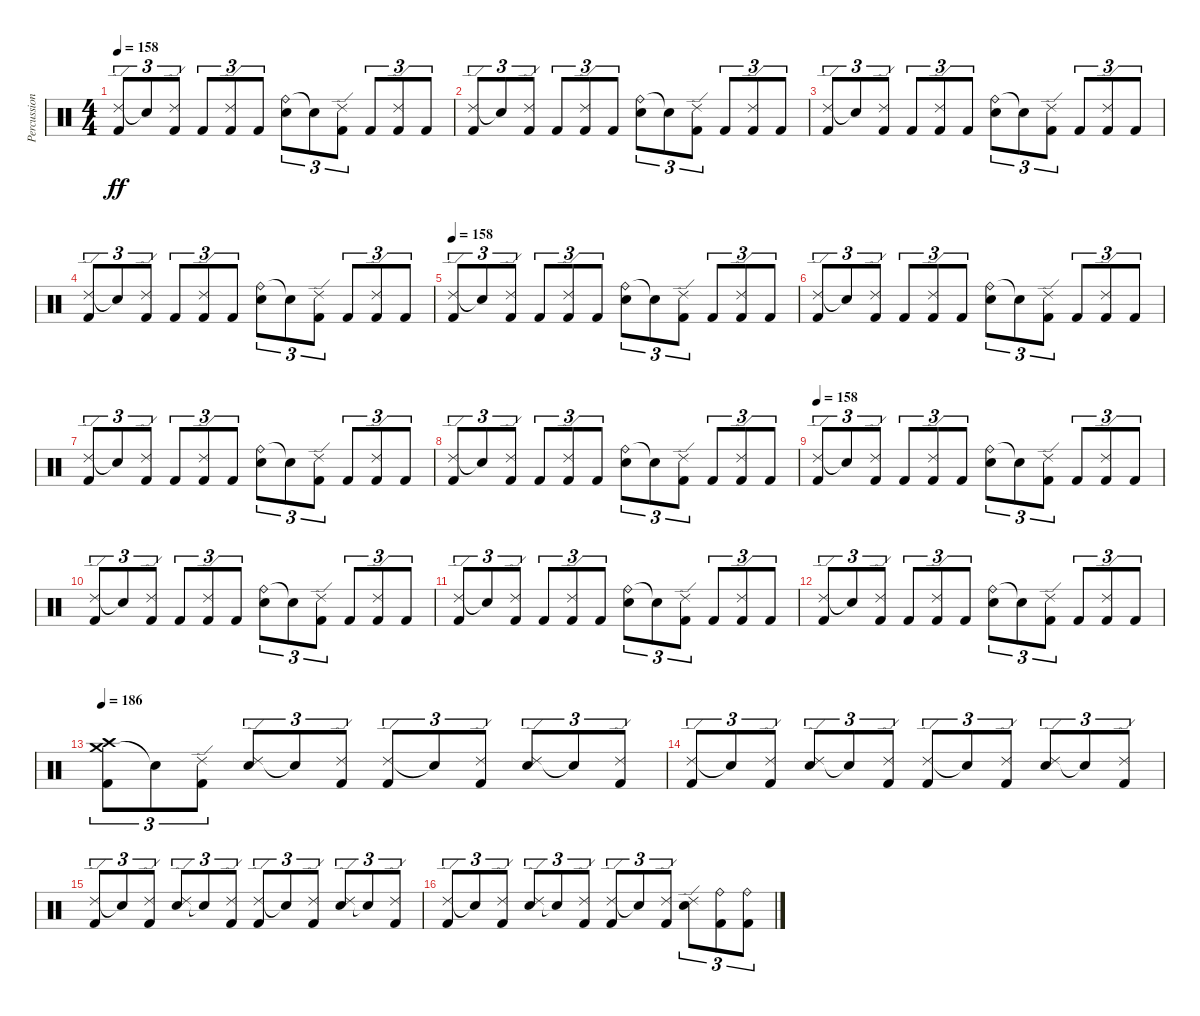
\track ("Percussion" "Percussion") {instrument percussion}
\staff {score}
\articulation defaults
\ts (4 4)
\tempo 158
\clef neutral
\ks c
("Ride (edge) 2" "Kick (hit) 2").8{tu (3 2) dy ff} "Snare (hit)"{t}.8{tu (3 2)} ("Ride (edge) 2" "Kick (hit) 2").8{tu (3 2)} "Kick (hit) 2".8{tu (3 2)} ("Ride (edge) 2" "Kick (hit) 2").8{tu (3 2)} "Kick (hit) 2".8{tu (3 2)} ("Ride (bell)" "Snare (hit) 2").8{tu (3 2)} "Snare (hit)"{t}.8{tu (3 2)} ("Ride (edge) 2" "Kick (hit) 2").8{tu (3 2)} "Kick (hit) 2".8{tu (3 2)} ("Ride (edge) 2" "Kick (hit) 2").8{tu (3 2)} "Kick (hit) 2".8{tu (3 2)} |
("Ride (edge) 2" "Kick (hit) 2").8{tu (3 2)} "Snare (hit)"{t}.8{tu (3 2)} ("Ride (edge) 2" "Kick (hit) 2").8{tu (3 2)} "Kick (hit) 2".8{tu (3 2)} ("Ride (edge) 2" "Kick (hit) 2").8{tu (3 2)} "Kick (hit) 2".8{tu (3 2)} ("Ride (bell)" "Snare (hit) 2").8{tu (3 2)} "Snare (hit)"{t}.8{tu (3 2)} ("Ride (edge) 2" "Kick (hit) 2").8{tu (3 2)} "Kick (hit) 2".8{tu (3 2)} ("Ride (edge) 2" "Kick (hit) 2").8{tu (3 2)} "Kick (hit) 2".8{tu (3 2)} |
("Ride (edge) 2" "Kick (hit) 2").8{tu (3 2)} "Snare (hit)"{t}.8{tu (3 2)} ("Ride (edge) 2" "Kick (hit) 2").8{tu (3 2)} "Kick (hit) 2".8{tu (3 2)} ("Ride (edge) 2" "Kick (hit) 2").8{tu (3 2)} "Kick (hit) 2".8{tu (3 2)} ("Ride (bell)" "Snare (hit) 2").8{tu (3 2)} "Snare (hit)"{t}.8{tu (3 2)} ("Ride (edge) 2" "Kick (hit) 2").8{tu (3 2)} "Kick (hit) 2".8{tu (3 2)} ("Ride (edge) 2" "Kick (hit) 2").8{tu (3 2)} "Kick (hit) 2".8{tu (3 2)} |
("Ride (edge) 2" "Kick (hit) 2").8{tu (3 2)} "Snare (hit)"{t}.8{tu (3 2)} ("Ride (edge) 2" "Kick (hit) 2").8{tu (3 2)} "Kick (hit) 2".8{tu (3 2)} ("Ride (edge) 2" "Kick (hit) 2").8{tu (3 2)} "Kick (hit) 2".8{tu (3 2)} ("Ride (bell)" "Snare (hit) 2").8{tu (3 2)} "Snare (hit)"{t}.8{tu (3 2)} ("Ride (edge) 2" "Kick (hit) 2").8{tu (3 2)} "Kick (hit) 2".8{tu (3 2)} ("Ride (edge) 2" "Kick (hit) 2").8{tu (3 2)} "Kick (hit) 2".8{tu (3 2)} |
\tempo 158
("Ride (edge) 2" "Kick (hit) 2").8{tu (3 2)} "Snare (hit)"{t}.8{tu (3 2)} ("Ride (edge) 2" "Kick (hit) 2").8{tu (3 2)} "Kick (hit) 2".8{tu (3 2)} ("Ride (edge) 2" "Kick (hit) 2").8{tu (3 2)} "Kick (hit) 2".8{tu (3 2)} ("Ride (bell)" "Snare (hit) 2").8{tu (3 2)} "Snare (hit)"{t}.8{tu (3 2)} ("Ride (edge) 2" "Kick (hit) 2").8{tu (3 2)} "Kick (hit) 2".8{tu (3 2)} ("Ride (edge) 2" "Kick (hit) 2").8{tu (3 2)} "Kick (hit) 2".8{tu (3 2)} |
("Ride (edge) 2" "Kick (hit) 2").8{tu (3 2)} "Snare (hit)"{t}.8{tu (3 2)} ("Ride (edge) 2" "Kick (hit) 2").8{tu (3 2)} "Kick (hit) 2".8{tu (3 2)} ("Ride (edge) 2" "Kick (hit) 2").8{tu (3 2)} "Kick (hit) 2".8{tu (3 2)} ("Ride (bell)" "Snare (hit) 2").8{tu (3 2)} "Snare (hit)"{t}.8{tu (3 2)} ("Ride (edge) 2" "Kick (hit) 2").8{tu (3 2)} "Kick (hit) 2".8{tu (3 2)} ("Ride (edge) 2" "Kick (hit) 2").8{tu (3 2)} "Kick (hit) 2".8{tu (3 2)} |
("Ride (edge) 2" "Kick (hit) 2").8{tu (3 2)} "Snare (hit)"{t}.8{tu (3 2)} ("Ride (edge) 2" "Kick (hit) 2").8{tu (3 2)} "Kick (hit) 2".8{tu (3 2)} ("Ride (edge) 2" "Kick (hit) 2").8{tu (3 2)} "Kick (hit) 2".8{tu (3 2)} ("Ride (bell)" "Snare (hit) 2").8{tu (3 2)} "Snare (hit)"{t}.8{tu (3 2)} ("Ride (edge) 2" "Kick (hit) 2").8{tu (3 2)} "Kick (hit) 2".8{tu (3 2)} ("Ride (edge) 2" "Kick (hit) 2").8{tu (3 2)} "Kick (hit) 2".8{tu (3 2)} |
("Ride (edge) 2" "Kick (hit) 2").8{tu (3 2)} "Snare (hit)"{t}.8{tu (3 2)} ("Ride (edge) 2" "Kick (hit) 2").8{tu (3 2)} "Kick (hit) 2".8{tu (3 2)} ("Ride (edge) 2" "Kick (hit) 2").8{tu (3 2)} "Kick (hit) 2".8{tu (3 2)} ("Ride (bell)" "Snare (hit) 2").8{tu (3 2)} "Snare (hit)"{t}.8{tu (3 2)} ("Ride (edge) 2" "Kick (hit) 2").8{tu (3 2)} "Kick (hit) 2".8{tu (3 2)} ("Ride (edge) 2" "Kick (hit) 2").8{tu (3 2)} "Kick (hit) 2".8{tu (3 2)} |
\tempo 158
("Ride (edge) 2" "Kick (hit) 2").8{tu (3 2)} "Snare (hit)"{t}.8{tu (3 2)} ("Ride (edge) 2" "Kick (hit) 2").8{tu (3 2)} "Kick (hit) 2".8{tu (3 2)} ("Ride (edge) 2" "Kick (hit) 2").8{tu (3 2)} "Kick (hit) 2".8{tu (3 2)} ("Ride (bell)" "Snare (hit) 2").8{tu (3 2)} "Snare (hit)"{t}.8{tu (3 2)} ("Ride (edge) 2" "Kick (hit) 2").8{tu (3 2)} "Kick (hit) 2".8{tu (3 2)} ("Ride (edge) 2" "Kick (hit) 2").8{tu (3 2)} "Kick (hit) 2".8{tu (3 2)} |
("Ride (edge) 2" "Kick (hit) 2").8{tu (3 2)} "Snare (hit)"{t}.8{tu (3 2)} ("Ride (edge) 2" "Kick (hit) 2").8{tu (3 2)} "Kick (hit) 2".8{tu (3 2)} ("Ride (edge) 2" "Kick (hit) 2").8{tu (3 2)} "Kick (hit) 2".8{tu (3 2)} ("Ride (bell)" "Snare (hit) 2").8{tu (3 2)} "Snare (hit)"{t}.8{tu (3 2)} ("Ride (edge) 2" "Kick (hit) 2").8{tu (3 2)} "Kick (hit) 2".8{tu (3 2)} ("Ride (edge) 2" "Kick (hit) 2").8{tu (3 2)} "Kick (hit) 2".8{tu (3 2)} |
("Ride (edge) 2" "Kick (hit) 2").8{tu (3 2)} "Snare (hit)"{t}.8{tu (3 2)} ("Ride (edge) 2" "Kick (hit) 2").8{tu (3 2)} "Kick (hit) 2".8{tu (3 2)} ("Ride (edge) 2" "Kick (hit) 2").8{tu (3 2)} "Kick (hit) 2".8{tu (3 2)} ("Ride (bell)" "Snare (hit) 2").8{tu (3 2)} "Snare (hit)"{t}.8{tu (3 2)} ("Ride (edge) 2" "Kick (hit) 2").8{tu (3 2)} "Kick (hit) 2".8{tu (3 2)} ("Ride (edge) 2" "Kick (hit) 2").8{tu (3 2)} "Kick (hit) 2".8{tu (3 2)} |
("Ride (edge) 2" "Kick (hit) 2").8{tu (3 2)} "Snare (hit)"{t}.8{tu (3 2)} ("Ride (edge) 2" "Kick (hit) 2").8{tu (3 2)} "Kick (hit) 2".8{tu (3 2)} ("Ride (edge) 2" "Kick (hit) 2").8{tu (3 2)} "Kick (hit) 2".8{tu (3 2)} ("Ride (bell)" "Snare (hit) 2").8{tu (3 2)} "Snare (hit)"{t}.8{tu (3 2)} ("Ride (edge) 2" "Kick (hit) 2").8{tu (3 2)} "Kick (hit) 2".8{tu (3 2)} ("Ride (edge) 2" "Kick (hit) 2").8{tu (3 2)} "Kick (hit) 2".8{tu (3 2)} |
\tempo 186
("Crash medium (hit)" "Crash high (hit)" "Kick (hit) 2").8{tu (3 2)} "Snare (hit)"{t}.8{tu (3 2)} ("Ride (edge) 2" "Kick (hit) 2").8{tu (3 2)} ("Ride (edge) 2" "Snare (hit) 2").8{tu (3 2)} "Snare (hit)"{t}.8{tu (3 2)} ("Ride (edge) 2" "Kick (hit) 2").8{tu (3 2)} ("Ride (edge) 2" "Kick (hit) 2").8{tu (3 2)} "Snare (hit)"{t}.8{tu (3 2)} ("Ride (edge) 2" "Kick (hit) 2").8{tu (3 2)} ("Ride (edge) 2" "Snare (hit) 2").8{tu (3 2)} "Snare (hit)"{t}.8{tu (3 2)} ("Ride (edge) 2" "Kick (hit) 2").8{tu (3 2)} |
("Ride (edge) 2" "Kick (hit) 2").8{tu (3 2)} "Snare (hit)"{t}.8{tu (3 2)} ("Ride (edge) 2" "Kick (hit) 2").8{tu (3 2)} ("Ride (edge) 2" "Snare (hit) 2").8{tu (3 2)} "Snare (hit)"{t}.8{tu (3 2)} ("Ride (edge) 2" "Kick (hit) 2").8{tu (3 2)} ("Ride (edge) 2" "Kick (hit) 2").8{tu (3 2)} "Snare (hit)"{t}.8{tu (3 2)} ("Ride (edge) 2" "Kick (hit) 2").8{tu (3 2)} ("Ride (edge) 2" "Snare (hit) 2").8{tu (3 2)} "Snare (hit)"{t}.8{tu (3 2)} ("Ride (edge) 2" "Kick (hit) 2").8{tu (3 2)} |
("Ride (edge) 2" "Kick (hit) 2").8{tu (3 2)} "Snare (hit)"{t}.8{tu (3 2)} ("Ride (edge) 2" "Kick (hit) 2").8{tu (3 2)} ("Ride (edge) 2" "Snare (hit) 2").8{tu (3 2)} "Snare (hit)"{t}.8{tu (3 2)} ("Ride (edge) 2" "Kick (hit) 2").8{tu (3 2)} ("Ride (edge) 2" "Kick (hit) 2").8{tu (3 2)} "Snare (hit)"{t}.8{tu (3 2)} ("Ride (edge) 2" "Kick (hit) 2").8{tu (3 2)} ("Ride (edge) 2" "Snare (hit) 2").8{tu (3 2)} "Snare (hit)"{t}.8{tu (3 2)} ("Ride (edge) 2" "Kick (hit) 2").8{tu (3 2)} |
("Ride (edge) 2" "Kick (hit) 2").8{tu (3 2)} "Snare (hit)"{t}.8{tu (3 2)} ("Ride (edge) 2" "Kick (hit) 2").8{tu (3 2)} ("Ride (edge) 2" "Snare (hit) 2").8{tu (3 2)} "Snare (hit)"{t}.8{tu (3 2)} ("Ride (edge) 2" "Kick (hit) 2").8{tu (3 2)} ("Ride (edge) 2" "Kick (hit) 2").8{tu (3 2)} "Snare (hit)"{t}.8{tu (3 2)} ("Ride (edge) 2" "Kick (hit) 2").8{tu (3 2)} ("Ride (edge) 2" "Snare (hit) 2").8{tu (3 2)} ("Ride (bell)" "Kick (hit) 2").8{tu (3 2)} ("Ride (bell)" "Kick (hit) 2").8{tu (3 2)}
